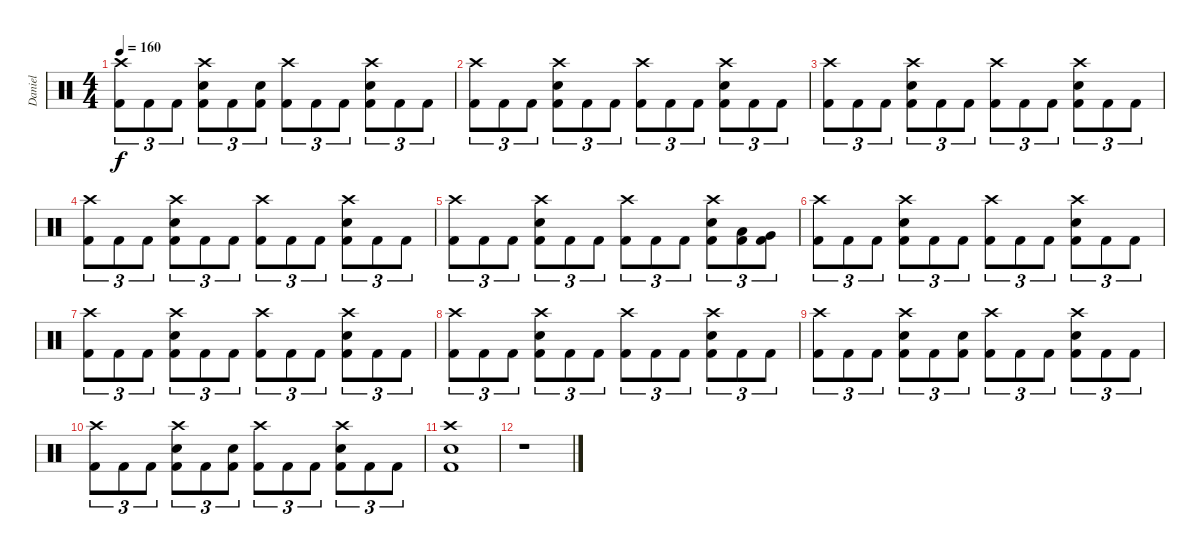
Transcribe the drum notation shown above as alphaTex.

\track ("Daniel" "Daniel") {instrument percussion}
\staff {score}
\articulation defaults
\ts (4 4)
\tempo 160
\clef neutral
\ks c
("Crash high (hit)" "Kick (hit) 2").8{tu (3 2) dy f} "Kick (hit) 2".8{tu (3 2)} "Kick (hit) 2".8{tu (3 2)} ("Crash high (hit)" "Electric Snare (hit)" "Kick (hit) 2").8{tu (3 2)} "Kick (hit) 2".8{tu (3 2)} ("Electric Snare (hit)" "Kick (hit) 2").8{tu (3 2)} ("Crash high (hit)" "Kick (hit) 2").8{tu (3 2)} "Kick (hit) 2".8{tu (3 2)} "Kick (hit) 2".8{tu (3 2)} ("Crash high (hit)" "Electric Snare (hit)" "Kick (hit) 2").8{tu (3 2)} "Kick (hit) 2".8{tu (3 2)} "Kick (hit) 2".8{tu (3 2)} |
("Crash high (hit)" "Kick (hit) 2").8{tu (3 2)} "Kick (hit) 2".8{tu (3 2)} "Kick (hit) 2".8{tu (3 2)} ("Crash high (hit)" "Electric Snare (hit)" "Kick (hit) 2").8{tu (3 2)} "Kick (hit) 2".8{tu (3 2)} "Kick (hit) 2".8{tu (3 2)} ("Crash high (hit)" "Kick (hit) 2").8{tu (3 2)} "Kick (hit) 2".8{tu (3 2)} "Kick (hit) 2".8{tu (3 2)} ("Crash high (hit)" "Electric Snare (hit)" "Kick (hit) 2").8{tu (3 2)} "Kick (hit) 2".8{tu (3 2)} "Kick (hit) 2".8{tu (3 2)} |
("Crash high (hit)" "Kick (hit) 2").8{tu (3 2)} "Kick (hit) 2".8{tu (3 2)} "Kick (hit) 2".8{tu (3 2)} ("Crash high (hit)" "Electric Snare (hit)" "Kick (hit) 2").8{tu (3 2)} "Kick (hit) 2".8{tu (3 2)} "Kick (hit) 2".8{tu (3 2)} ("Crash high (hit)" "Kick (hit) 2").8{tu (3 2)} "Kick (hit) 2".8{tu (3 2)} "Kick (hit) 2".8{tu (3 2)} ("Crash high (hit)" "Electric Snare (hit)" "Kick (hit) 2").8{tu (3 2)} "Kick (hit) 2".8{tu (3 2)} "Kick (hit) 2".8{tu (3 2)} |
("Crash high (hit)" "Kick (hit) 2").8{tu (3 2)} "Kick (hit) 2".8{tu (3 2)} "Kick (hit) 2".8{tu (3 2)} ("Crash high (hit)" "Electric Snare (hit)" "Kick (hit) 2").8{tu (3 2)} "Kick (hit) 2".8{tu (3 2)} "Kick (hit) 2".8{tu (3 2)} ("Crash high (hit)" "Kick (hit) 2").8{tu (3 2)} "Kick (hit) 2".8{tu (3 2)} "Kick (hit) 2".8{tu (3 2)} ("Crash high (hit)" "Electric Snare (hit)" "Kick (hit) 2").8{tu (3 2)} "Kick (hit) 2".8{tu (3 2)} "Kick (hit) 2".8{tu (3 2)} |
("Crash high (hit)" "Kick (hit) 2").8{tu (3 2)} "Kick (hit) 2".8{tu (3 2)} "Kick (hit) 2".8{tu (3 2)} ("Crash high (hit)" "Electric Snare (hit)" "Kick (hit) 2").8{tu (3 2)} "Kick (hit) 2".8{tu (3 2)} "Kick (hit) 2".8{tu (3 2)} ("Crash high (hit)" "Kick (hit) 2").8{tu (3 2)} "Kick (hit) 2".8{tu (3 2)} "Kick (hit) 2".8{tu (3 2)} ("Crash high (hit)" "Electric Snare (hit)" "Kick (hit) 2").8{tu (3 2)} ("Low Tom (hit)" "Kick (hit) 2").8{tu (3 2)} ("Very Low Tom (hit)" "Kick (hit) 2").8{tu (3 2)} |
("Crash high (hit)" "Kick (hit) 2").8{tu (3 2)} "Kick (hit) 2".8{tu (3 2)} "Kick (hit) 2".8{tu (3 2)} ("Crash high (hit)" "Electric Snare (hit)" "Kick (hit) 2").8{tu (3 2)} "Kick (hit) 2".8{tu (3 2)} "Kick (hit) 2".8{tu (3 2)} ("Crash high (hit)" "Kick (hit) 2").8{tu (3 2)} "Kick (hit) 2".8{tu (3 2)} "Kick (hit) 2".8{tu (3 2)} ("Crash high (hit)" "Electric Snare (hit)" "Kick (hit) 2").8{tu (3 2)} "Kick (hit) 2".8{tu (3 2)} "Kick (hit) 2".8{tu (3 2)} |
("Crash high (hit)" "Kick (hit) 2").8{tu (3 2)} "Kick (hit) 2".8{tu (3 2)} "Kick (hit) 2".8{tu (3 2)} ("Crash high (hit)" "Electric Snare (hit)" "Kick (hit) 2").8{tu (3 2)} "Kick (hit) 2".8{tu (3 2)} "Kick (hit) 2".8{tu (3 2)} ("Crash high (hit)" "Kick (hit) 2").8{tu (3 2)} "Kick (hit) 2".8{tu (3 2)} "Kick (hit) 2".8{tu (3 2)} ("Crash high (hit)" "Electric Snare (hit)" "Kick (hit) 2").8{tu (3 2)} "Kick (hit) 2".8{tu (3 2)} "Kick (hit) 2".8{tu (3 2)} |
("Crash high (hit)" "Kick (hit) 2").8{tu (3 2)} "Kick (hit) 2".8{tu (3 2)} "Kick (hit) 2".8{tu (3 2)} ("Crash high (hit)" "Electric Snare (hit)" "Kick (hit) 2").8{tu (3 2)} "Kick (hit) 2".8{tu (3 2)} "Kick (hit) 2".8{tu (3 2)} ("Crash high (hit)" "Kick (hit) 2").8{tu (3 2)} "Kick (hit) 2".8{tu (3 2)} "Kick (hit) 2".8{tu (3 2)} ("Crash high (hit)" "Electric Snare (hit)" "Kick (hit) 2").8{tu (3 2)} "Kick (hit) 2".8{tu (3 2)} "Kick (hit) 2".8{tu (3 2)} |
("Crash high (hit)" "Kick (hit) 2").8{tu (3 2)} "Kick (hit) 2".8{tu (3 2)} "Kick (hit) 2".8{tu (3 2)} ("Crash high (hit)" "Electric Snare (hit)" "Kick (hit) 2").8{tu (3 2)} "Kick (hit) 2".8{tu (3 2)} ("Electric Snare (hit)" "Kick (hit) 2").8{tu (3 2)} ("Crash high (hit)" "Kick (hit) 2").8{tu (3 2)} "Kick (hit) 2".8{tu (3 2)} "Kick (hit) 2".8{tu (3 2)} ("Crash high (hit)" "Electric Snare (hit)" "Kick (hit) 2").8{tu (3 2)} "Kick (hit) 2".8{tu (3 2)} "Kick (hit) 2".8{tu (3 2)} |
("Crash high (hit)" "Kick (hit) 2").8{tu (3 2)} "Kick (hit) 2".8{tu (3 2)} "Kick (hit) 2".8{tu (3 2)} ("Crash high (hit)" "Electric Snare (hit)" "Kick (hit) 2").8{tu (3 2)} "Kick (hit) 2".8{tu (3 2)} ("Electric Snare (hit)" "Kick (hit) 2").8{tu (3 2)} ("Crash high (hit)" "Kick (hit) 2").8{tu (3 2)} "Kick (hit) 2".8{tu (3 2)} "Kick (hit) 2".8{tu (3 2)} ("Crash high (hit)" "Electric Snare (hit)" "Kick (hit) 2").8{tu (3 2)} "Kick (hit) 2".8{tu (3 2)} "Kick (hit) 2".8{tu (3 2)} |
("Crash high (hit)" "Electric Snare (hit)" "Kick (hit) 2").1 |
r.1
